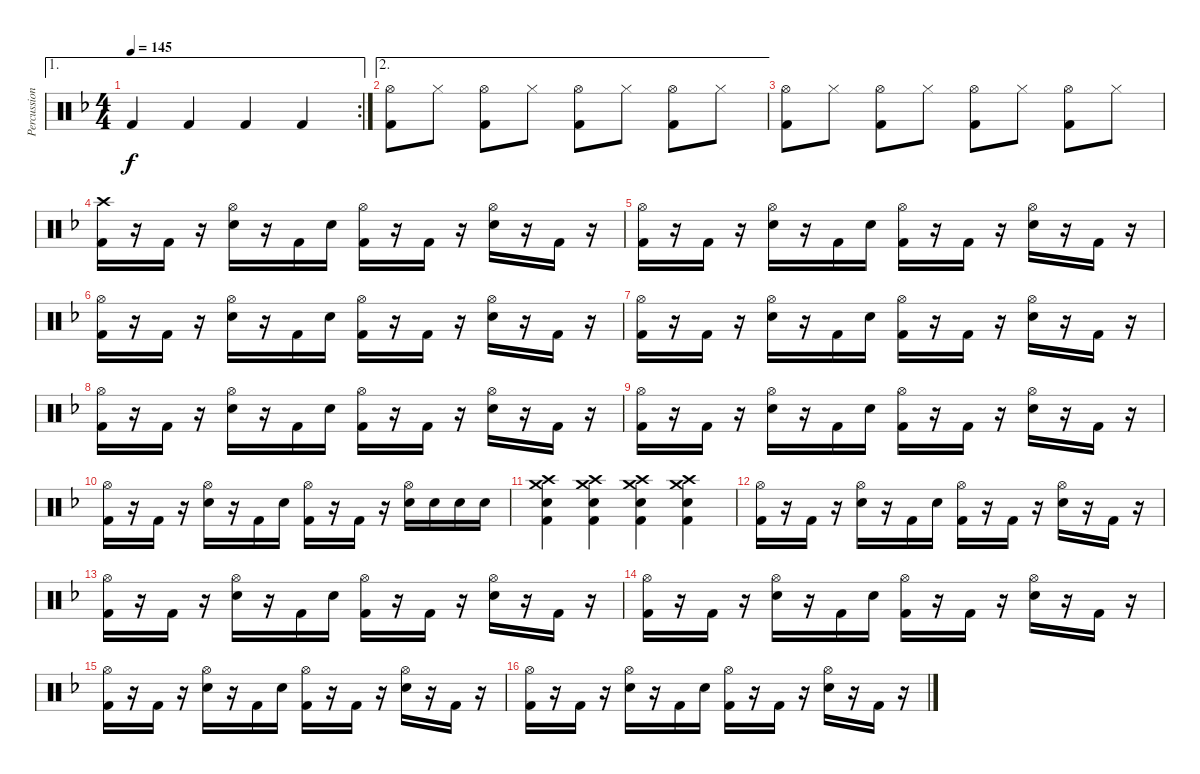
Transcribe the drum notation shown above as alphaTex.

\track ("Percussion" "Percussion") {instrument percussion}
\staff {score}
\articulation defaults
\ae 1
\rc 2
\ts (4 4)
\tempo 145
\clef neutral
\ks f "Kick (hit) 2".4{dy f} "Kick (hit) 2".4 "Kick (hit) 2".4 "Kick (hit) 2".4
|
\ae 2
("Hi-Hat (open)" "Kick (hit) 2").8 "Hi-Hat (closed)".8 ("Hi-Hat (open)" "Kick (hit) 2").8 "Hi-Hat (closed)".8 ("Hi-Hat (open)" "Kick (hit) 2").8 "Hi-Hat (closed)".8 ("Hi-Hat (open)" "Kick (hit) 2").8 "Hi-Hat (closed)".8 |
("Hi-Hat (open)" "Kick (hit) 2").8 "Hi-Hat (closed)".8 ("Hi-Hat (open)" "Kick (hit) 2").8 "Hi-Hat (closed)".8 ("Hi-Hat (open)" "Kick (hit) 2").8 "Hi-Hat (closed)".8 ("Hi-Hat (open)" "Kick (hit) 2").8 "Hi-Hat (closed)".8 |
("Crash high (hit)" "Kick (hit) 2").16 r.16 "Kick (hit) 2".16 r.16 ("Hi-Hat (open)" "Electric Snare (hit)").16 r.16 "Kick (hit) 2".16 "Electric Snare (hit)".16 ("Hi-Hat (open)" "Kick (hit) 2").16 r.16 "Kick (hit) 2".16 r.16 ("Hi-Hat (open)" "Electric Snare (hit)").16 r.16 "Kick (hit) 2".16 r.16 |
("Hi-Hat (open)" "Kick (hit) 2").16 r.16 "Kick (hit) 2".16 r.16 ("Hi-Hat (open)" "Electric Snare (hit)").16 r.16 "Kick (hit) 2".16 "Electric Snare (hit)".16 ("Hi-Hat (open)" "Kick (hit) 2").16 r.16 "Kick (hit) 2".16 r.16 ("Hi-Hat (open)" "Electric Snare (hit)").16 r.16 "Kick (hit) 2".16 r.16 |
("Hi-Hat (open)" "Kick (hit) 2").16 r.16 "Kick (hit) 2".16 r.16 ("Hi-Hat (open)" "Electric Snare (hit)").16 r.16 "Kick (hit) 2".16 "Electric Snare (hit)".16 ("Hi-Hat (open)" "Kick (hit) 2").16 r.16 "Kick (hit) 2".16 r.16 ("Hi-Hat (open)" "Electric Snare (hit)").16 r.16 "Kick (hit) 2".16 r.16 |
("Hi-Hat (open)" "Kick (hit) 2").16 r.16 "Kick (hit) 2".16 r.16 ("Hi-Hat (open)" "Electric Snare (hit)").16 r.16 "Kick (hit) 2".16 "Electric Snare (hit)".16 ("Hi-Hat (open)" "Kick (hit) 2").16 r.16 "Kick (hit) 2".16 r.16 ("Hi-Hat (open)" "Electric Snare (hit)").16 r.16 "Kick (hit) 2".16 r.16 |
("Hi-Hat (open)" "Kick (hit) 2").16 r.16 "Kick (hit) 2".16 r.16 ("Hi-Hat (open)" "Electric Snare (hit)").16 r.16 "Kick (hit) 2".16 "Electric Snare (hit)".16 ("Hi-Hat (open)" "Kick (hit) 2").16 r.16 "Kick (hit) 2".16 r.16 ("Hi-Hat (open)" "Electric Snare (hit)").16 r.16 "Kick (hit) 2".16 r.16 |
("Hi-Hat (open)" "Kick (hit) 2").16 r.16 "Kick (hit) 2".16 r.16 ("Hi-Hat (open)" "Electric Snare (hit)").16 r.16 "Kick (hit) 2".16 "Electric Snare (hit)".16 ("Hi-Hat (open)" "Kick (hit) 2").16 r.16 "Kick (hit) 2".16 r.16 ("Hi-Hat (open)" "Electric Snare (hit)").16 r.16 "Kick (hit) 2".16 r.16 |
("Hi-Hat (open)" "Kick (hit) 2").16 r.16 "Kick (hit) 2".16 r.16 ("Hi-Hat (open)" "Electric Snare (hit)").16 r.16 "Kick (hit) 2".16 "Electric Snare (hit)".16 ("Hi-Hat (open)" "Kick (hit) 2").16 r.16 "Kick (hit) 2".16 r.16 ("Hi-Hat (open)" "Electric Snare (hit)").16 "Electric Snare (hit)".16 "Electric Snare (hit)".16 "Electric Snare (hit)".16 |
("Crash high (hit)" "Crash medium (hit)" "Electric Snare (hit)" "Kick (hit) 2").4 ("Crash high (hit)" "Crash medium (hit)" "Electric Snare (hit)" "Kick (hit) 2").4 ("Crash high (hit)" "Crash medium (hit)" "Electric Snare (hit)" "Kick (hit) 2").4 ("Crash high (hit)" "Crash medium (hit)" "Electric Snare (hit)" "Kick (hit) 2").4 |
("Hi-Hat (open)" "Kick (hit) 2").16 r.16 "Kick (hit) 2".16 r.16 ("Hi-Hat (open)" "Electric Snare (hit)").16 r.16 "Kick (hit) 2".16 "Electric Snare (hit)".16 ("Hi-Hat (open)" "Kick (hit) 2").16 r.16 "Kick (hit) 2".16 r.16 ("Hi-Hat (open)" "Electric Snare (hit)").16 r.16 "Kick (hit) 2".16 r.16 |
("Hi-Hat (open)" "Kick (hit) 2").16 r.16 "Kick (hit) 2".16 r.16 ("Hi-Hat (open)" "Electric Snare (hit)").16 r.16 "Kick (hit) 2".16 "Electric Snare (hit)".16 ("Hi-Hat (open)" "Kick (hit) 2").16 r.16 "Kick (hit) 2".16 r.16 ("Hi-Hat (open)" "Electric Snare (hit)").16 r.16 "Kick (hit) 2".16 r.16 |
("Hi-Hat (open)" "Kick (hit) 2").16 r.16 "Kick (hit) 2".16 r.16 ("Hi-Hat (open)" "Electric Snare (hit)").16 r.16 "Kick (hit) 2".16 "Electric Snare (hit)".16 ("Hi-Hat (open)" "Kick (hit) 2").16 r.16 "Kick (hit) 2".16 r.16 ("Hi-Hat (open)" "Electric Snare (hit)").16 r.16 "Kick (hit) 2".16 r.16 |
("Hi-Hat (open)" "Kick (hit) 2").16 r.16 "Kick (hit) 2".16 r.16 ("Hi-Hat (open)" "Electric Snare (hit)").16 r.16 "Kick (hit) 2".16 "Electric Snare (hit)".16 ("Hi-Hat (open)" "Kick (hit) 2").16 r.16 "Kick (hit) 2".16 r.16 ("Hi-Hat (open)" "Electric Snare (hit)").16 r.16 "Kick (hit) 2".16 r.16 |
("Hi-Hat (open)" "Kick (hit) 2").16 r.16 "Kick (hit) 2".16 r.16 ("Hi-Hat (open)" "Electric Snare (hit)").16 r.16 "Kick (hit) 2".16 "Electric Snare (hit)".16 ("Hi-Hat (open)" "Kick (hit) 2").16 r.16 "Kick (hit) 2".16 r.16 ("Hi-Hat (open)" "Electric Snare (hit)").16 r.16 "Kick (hit) 2".16 r.16
